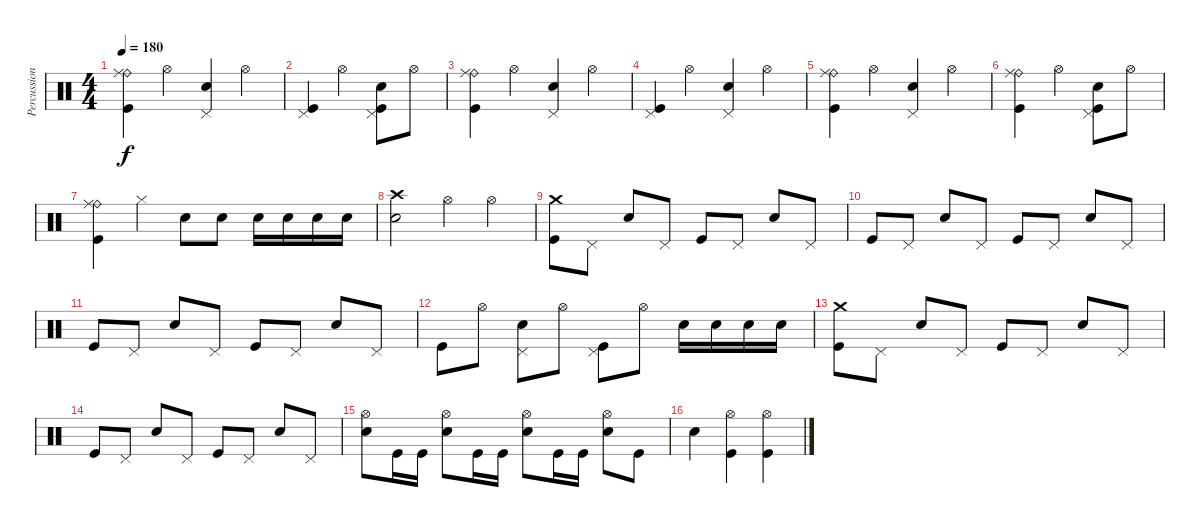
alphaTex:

\track ("Percussions" "Percussion") {instrument percussion}
\staff {score}
\articulation defaults
\ts (4 4)
\tempo 180
\clef neutral
\ks c
("Ride (bell)" "Ride (middle)" "Kick (hit)").4{dy f} "Hi-Hat (open)".4 ("Pedal Hi-Hat (hit)" "Snare (hit) 2").4 "Hi-Hat (open)".4 |
("Pedal Hi-Hat (hit)" "Kick (hit)").4 "Hi-Hat (open)".4 ("Pedal Hi-Hat (hit)" "Snare (hit) 2" "Kick (hit)").8 "Hi-Hat (open)".8 |
("Ride (bell)" "Ride (middle)" "Kick (hit)").4 "Hi-Hat (open)".4 ("Pedal Hi-Hat (hit)" "Snare (hit) 2").4 "Hi-Hat (open)".4 |
("Pedal Hi-Hat (hit)" "Kick (hit)").4 "Hi-Hat (open)".4 ("Pedal Hi-Hat (hit)" "Snare (hit) 2").4 "Hi-Hat (open)".4 |
("Ride (bell)" "Ride (middle)" "Kick (hit)").4 "Hi-Hat (open)".4 ("Pedal Hi-Hat (hit)" "Snare (hit) 2").4 "Hi-Hat (open)".4 |
("Ride (bell)" "Ride (middle)" "Kick (hit)").4 "Hi-Hat (open)".4 ("Pedal Hi-Hat (hit)" "Snare (hit) 2" "Kick (hit)").8 "Hi-Hat (open)".8 |
("Ride (bell)" "Ride (middle)" "Kick (hit)").4 "Hi-Hat (closed)".4 "Snare (hit) 2".8 "Snare (hit) 2".8 "Snare (hit) 2".16 "Snare (hit) 2".16 "Snare (hit) 2".16 "Snare (hit) 2".16 |
("Crash high (hit)" "Snare (hit) 2").2 "Hi-Hat (open)".4 "Hi-Hat (open)".4 |
("Crash medium (hit)" "Kick (hit)").8 "Pedal Hi-Hat (hit)".8 "Snare (hit) 2".8 "Pedal Hi-Hat (hit)".8 "Kick (hit)".8 "Pedal Hi-Hat (hit)".8 "Snare (hit) 2".8 "Pedal Hi-Hat (hit)".8 |
"Kick (hit)".8 "Pedal Hi-Hat (hit)".8 "Snare (hit) 2".8 "Pedal Hi-Hat (hit)".8 "Kick (hit)".8 "Pedal Hi-Hat (hit)".8 "Snare (hit) 2".8 "Pedal Hi-Hat (hit)".8 |
"Kick (hit)".8 "Pedal Hi-Hat (hit)".8 "Snare (hit) 2".8 "Pedal Hi-Hat (hit)".8 "Kick (hit)".8 "Pedal Hi-Hat (hit)".8 "Snare (hit) 2".8 "Pedal Hi-Hat (hit)".8 |
"Kick (hit)".8 "Hi-Hat (open)".8 ("Pedal Hi-Hat (hit)" "Snare (hit) 2").8 "Hi-Hat (open)".8 ("Pedal Hi-Hat (hit)" "Kick (hit)").8 "Hi-Hat (open)".8 "Snare (hit) 2".16 "Snare (hit) 2".16 "Snare (hit) 2".16 "Snare (hit) 2".16 |
("Crash medium (hit)" "Kick (hit)").8 "Pedal Hi-Hat (hit)".8 "Snare (hit) 2".8 "Pedal Hi-Hat (hit)".8 "Kick (hit)".8 "Pedal Hi-Hat (hit)".8 "Snare (hit) 2".8 "Pedal Hi-Hat (hit)".8 |
"Kick (hit)".8 "Pedal Hi-Hat (hit)".8 "Snare (hit) 2".8 "Pedal Hi-Hat (hit)".8 "Kick (hit)".8 "Pedal Hi-Hat (hit)".8 "Snare (hit) 2".8 "Pedal Hi-Hat (hit)".8 |
("Hi-Hat (open)" "Snare (hit) 2").8 "Kick (hit)".16 "Kick (hit)".16 ("Hi-Hat (open)" "Snare (hit) 2").8 "Kick (hit)".16 "Kick (hit)".16 ("Hi-Hat (open)" "Snare (hit) 2").8 "Kick (hit)".16 "Kick (hit)".16 ("Hi-Hat (open)" "Snare (hit) 2").8 "Kick (hit)".8 |
"Snare (hit) 2".4 ("Hi-Hat (open)" "Kick (hit)").4 ("Hi-Hat (open)" "Kick (hit)").4
